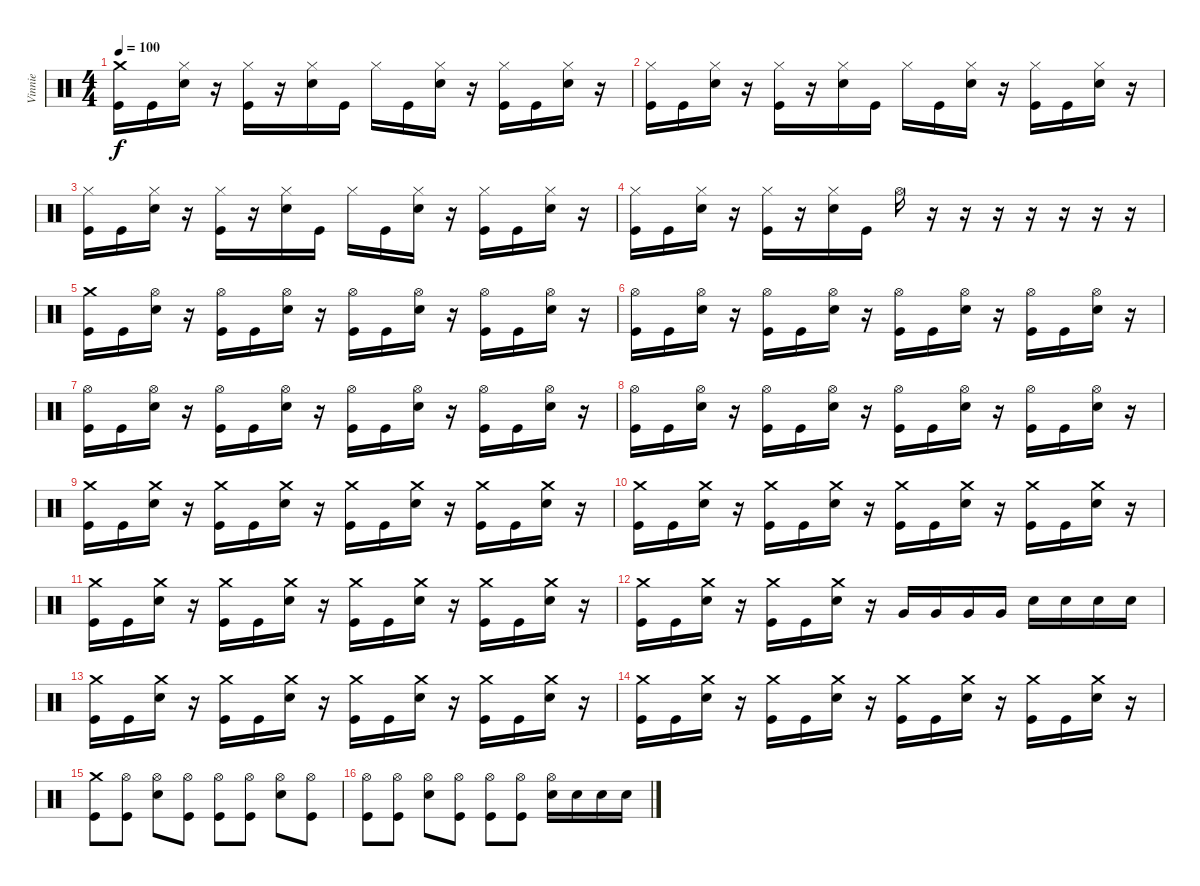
\track ("Vinnie" "Vinnie") {instrument percussion}
\staff {score}
\articulation defaults
\ts (4 4)
\tempo 100
\clef neutral
\ks c
("Crash medium (hit)" "Kick (hit)").16{dy f} "Kick (hit)".16 ("Hi-Hat (closed)" "Electric Snare (hit)").16 r.16 ("Hi-Hat (closed)" "Kick (hit)").16 r.16 ("Hi-Hat (closed)" "Electric Snare (hit)").16 "Kick (hit)".16 "Hi-Hat (closed)".16 "Kick (hit)".16 ("Hi-Hat (closed)" "Electric Snare (hit)").16 r.16 ("Hi-Hat (closed)" "Kick (hit)").16 "Kick (hit)".16 ("Hi-Hat (closed)" "Electric Snare (hit)").16 r.16 |
("Hi-Hat (closed)" "Kick (hit)").16 "Kick (hit)".16 ("Hi-Hat (closed)" "Electric Snare (hit)").16 r.16 ("Hi-Hat (closed)" "Kick (hit)").16 r.16 ("Hi-Hat (closed)" "Electric Snare (hit)").16 "Kick (hit)".16 "Hi-Hat (closed)".16 "Kick (hit)".16 ("Hi-Hat (closed)" "Electric Snare (hit)").16 r.16 ("Hi-Hat (closed)" "Kick (hit)").16 "Kick (hit)".16 ("Hi-Hat (closed)" "Electric Snare (hit)").16 r.16 |
("Hi-Hat (closed)" "Kick (hit)").16 "Kick (hit)".16 ("Hi-Hat (closed)" "Electric Snare (hit)").16 r.16 ("Hi-Hat (closed)" "Kick (hit)").16 r.16 ("Hi-Hat (closed)" "Electric Snare (hit)").16 "Kick (hit)".16 "Hi-Hat (closed)".16 "Kick (hit)".16 ("Hi-Hat (closed)" "Electric Snare (hit)").16 r.16 ("Hi-Hat (closed)" "Kick (hit)").16 "Kick (hit)".16 ("Hi-Hat (closed)" "Electric Snare (hit)").16 r.16 |
("Hi-Hat (closed)" "Kick (hit)").16 "Kick (hit)".16 ("Hi-Hat (closed)" "Electric Snare (hit)").16 r.16 ("Hi-Hat (closed)" "Kick (hit)").16 r.16 ("Hi-Hat (closed)" "Electric Snare (hit)").16 "Kick (hit)".16 "Hi-Hat (open)".16 r.16 r.16 r.16 r.16 r.16 r.16 r.16 |
("Crash medium (hit)" "Kick (hit)").16 "Kick (hit)".16 ("Hi-Hat (open)" "Electric Snare (hit)").16 r.16 ("Hi-Hat (open)" "Kick (hit)").16 "Kick (hit)".16 ("Hi-Hat (open)" "Electric Snare (hit)").16 r.16 ("Hi-Hat (open)" "Kick (hit)").16 "Kick (hit)".16 ("Hi-Hat (open)" "Electric Snare (hit)").16 r.16 ("Hi-Hat (open)" "Kick (hit)").16 "Kick (hit)".16 ("Hi-Hat (open)" "Electric Snare (hit)").16 r.16 |
("Hi-Hat (open)" "Kick (hit)").16 "Kick (hit)".16 ("Hi-Hat (open)" "Electric Snare (hit)").16 r.16 ("Hi-Hat (open)" "Kick (hit)").16 "Kick (hit)".16 ("Hi-Hat (open)" "Electric Snare (hit)").16 r.16 ("Hi-Hat (open)" "Kick (hit)").16 "Kick (hit)".16 ("Hi-Hat (open)" "Electric Snare (hit)").16 r.16 ("Hi-Hat (open)" "Kick (hit)").16 "Kick (hit)".16 ("Hi-Hat (open)" "Electric Snare (hit)").16 r.16 |
("Hi-Hat (open)" "Kick (hit)").16 "Kick (hit)".16 ("Hi-Hat (open)" "Electric Snare (hit)").16 r.16 ("Hi-Hat (open)" "Kick (hit)").16 "Kick (hit)".16 ("Hi-Hat (open)" "Electric Snare (hit)").16 r.16 ("Hi-Hat (open)" "Kick (hit)").16 "Kick (hit)".16 ("Hi-Hat (open)" "Electric Snare (hit)").16 r.16 ("Hi-Hat (open)" "Kick (hit)").16 "Kick (hit)".16 ("Hi-Hat (open)" "Electric Snare (hit)").16 r.16 |
("Hi-Hat (open)" "Kick (hit)").16 "Kick (hit)".16 ("Hi-Hat (open)" "Electric Snare (hit)").16 r.16 ("Hi-Hat (open)" "Kick (hit)").16 "Kick (hit)".16 ("Hi-Hat (open)" "Electric Snare (hit)").16 r.16 ("Hi-Hat (open)" "Kick (hit)").16 "Kick (hit)".16 ("Hi-Hat (open)" "Electric Snare (hit)").16 r.16 ("Hi-Hat (open)" "Kick (hit)").16 "Kick (hit)".16 ("Hi-Hat (open)" "Electric Snare (hit)").16 r.16 |
("Crash medium (hit)" "Kick (hit)").16 "Kick (hit)".16 ("Crash medium (hit)" "Electric Snare (hit)").16 r.16 ("Crash medium (hit)" "Kick (hit)").16 "Kick (hit)".16 ("Crash medium (hit)" "Electric Snare (hit)").16 r.16 ("Crash medium (hit)" "Kick (hit)").16 "Kick (hit)".16 ("Crash medium (hit)" "Electric Snare (hit)").16 r.16 ("Crash medium (hit)" "Kick (hit)").16 "Kick (hit)".16 ("Crash medium (hit)" "Electric Snare (hit)").16 r.16 |
("Crash medium (hit)" "Kick (hit)").16 "Kick (hit)".16 ("Crash medium (hit)" "Electric Snare (hit)").16 r.16 ("Crash medium (hit)" "Kick (hit)").16 "Kick (hit)".16 ("Crash medium (hit)" "Electric Snare (hit)").16 r.16 ("Crash medium (hit)" "Kick (hit)").16 "Kick (hit)".16 ("Crash medium (hit)" "Electric Snare (hit)").16 r.16 ("Crash medium (hit)" "Kick (hit)").16 "Kick (hit)".16 ("Crash medium (hit)" "Electric Snare (hit)").16 r.16 |
("Crash medium (hit)" "Kick (hit)").16 "Kick (hit)".16 ("Crash medium (hit)" "Electric Snare (hit)").16 r.16 ("Crash medium (hit)" "Kick (hit)").16 "Kick (hit)".16 ("Crash medium (hit)" "Electric Snare (hit)").16 r.16 ("Crash medium (hit)" "Kick (hit)").16 "Kick (hit)".16 ("Crash medium (hit)" "Electric Snare (hit)").16 r.16 ("Crash medium (hit)" "Kick (hit)").16 "Kick (hit)".16 ("Crash medium (hit)" "Electric Snare (hit)").16 r.16 |
("Crash medium (hit)" "Kick (hit)").16 "Kick (hit)".16 ("Crash medium (hit)" "Electric Snare (hit)").16 r.16 ("Crash medium (hit)" "Kick (hit)").16 "Kick (hit)".16 ("Crash medium (hit)" "Electric Snare (hit)").16 r.16 "Very Low Tom (hit)".16 "Very Low Tom (hit)".16 "Very Low Tom (hit)".16 "Very Low Tom (hit)".16 "Electric Snare (hit)".16 "Electric Snare (hit)".16 "Electric Snare (hit)".16 "Electric Snare (hit)".16 |
("Crash medium (hit)" "Kick (hit)").16 "Kick (hit)".16 ("Crash medium (hit)" "Electric Snare (hit)").16 r.16 ("Crash medium (hit)" "Kick (hit)").16 "Kick (hit)".16 ("Crash medium (hit)" "Electric Snare (hit)").16 r.16 ("Crash medium (hit)" "Kick (hit)").16 "Kick (hit)".16 ("Crash medium (hit)" "Electric Snare (hit)").16 r.16 ("Crash medium (hit)" "Kick (hit)").16 "Kick (hit)".16 ("Crash medium (hit)" "Electric Snare (hit)").16 r.16 |
("Crash medium (hit)" "Kick (hit)").16 "Kick (hit)".16 ("Crash medium (hit)" "Electric Snare (hit)").16 r.16 ("Crash medium (hit)" "Kick (hit)").16 "Kick (hit)".16 ("Crash medium (hit)" "Electric Snare (hit)").16 r.16 ("Crash medium (hit)" "Kick (hit)").16 "Kick (hit)".16 ("Crash medium (hit)" "Electric Snare (hit)").16 r.16 ("Crash medium (hit)" "Kick (hit)").16 "Kick (hit)".16 ("Crash medium (hit)" "Electric Snare (hit)").16 r.16 |
("Crash medium (hit)" "Kick (hit)").8 ("Hi-Hat (open)" "Kick (hit)").8 ("Hi-Hat (open)" "Electric Snare (hit)").8 ("Hi-Hat (open)" "Kick (hit)").8 ("Hi-Hat (open)" "Kick (hit)").8 ("Hi-Hat (open)" "Kick (hit)").8 ("Hi-Hat (open)" "Electric Snare (hit)").8 ("Hi-Hat (open)" "Kick (hit)").8 |
("Hi-Hat (open)" "Kick (hit)").8 ("Hi-Hat (open)" "Kick (hit)").8 ("Hi-Hat (open)" "Electric Snare (hit)").8 ("Hi-Hat (open)" "Kick (hit)").8 ("Hi-Hat (open)" "Kick (hit)").8 ("Hi-Hat (open)" "Kick (hit)").8 ("Hi-Hat (open)" "Electric Snare (hit)").16 "Electric Snare (hit)".16 "Electric Snare (hit)".16 "Electric Snare (hit)".16
